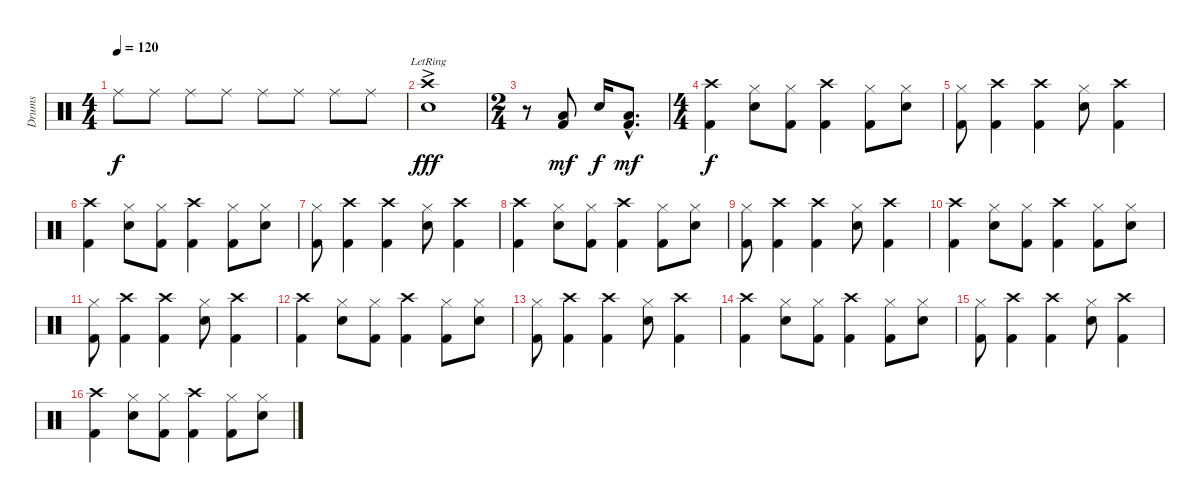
\track ("Drums" "Drums") {instrument percussion}
\staff {score}
\articulation defaults
\ts (4 4)
\tempo 120
\clef neutral
\ks c "Ride (middle)".8{dy f} "Ride (middle)".8 "Ride (middle)".8 "Ride (middle)".8 "Ride (middle)".8 "Ride (middle)".8 "Ride (middle)".8 "Ride (middle)".8
|
("Crash high (hit)"{ac lr} "Electric Snare (hit)"{ac lr}).1{dy fff} |
\ts (2 4)
r.8 ("Low Floor Tom (hit)" "Kick (hit) 2").8{dy mf} "Electric Snare (hit)".16{dy f} ("Low Floor Tom (hit)"{hac} "Kick (hit) 2"{hac}).8{d dy mf} |
\ts (4 4)
("Crash high (hit)" "Kick (hit) 2").4{dy f} ("Hi-Hat (closed)" "Electric Snare (hit)").8 ("Hi-Hat (closed)" "Kick (hit) 2").8 ("Crash high (hit)" "Kick (hit) 2").4 ("Hi-Hat (closed)" "Kick (hit) 2").8 ("Hi-Hat (closed)" "Electric Snare (hit)").8 |
("Hi-Hat (closed)" "Kick (hit) 2").8 ("Crash high (hit)" "Kick (hit) 2").4 ("Crash high (hit)" "Kick (hit) 2").4 ("Hi-Hat (closed)" "Electric Snare (hit)").8 ("Crash high (hit)" "Kick (hit) 2").4 |
("Crash high (hit)" "Kick (hit) 2").4 ("Hi-Hat (closed)" "Electric Snare (hit)").8 ("Hi-Hat (closed)" "Kick (hit) 2").8 ("Crash high (hit)" "Kick (hit) 2").4 ("Hi-Hat (closed)" "Kick (hit) 2").8 ("Hi-Hat (closed)" "Electric Snare (hit)").8 |
("Hi-Hat (closed)" "Kick (hit) 2").8 ("Crash high (hit)" "Kick (hit) 2").4 ("Crash high (hit)" "Kick (hit) 2").4 ("Hi-Hat (closed)" "Electric Snare (hit)").8 ("Crash high (hit)" "Kick (hit) 2").4 |
("Crash high (hit)" "Kick (hit) 2").4 ("Hi-Hat (closed)" "Electric Snare (hit)").8 ("Hi-Hat (closed)" "Kick (hit) 2").8 ("Crash high (hit)" "Kick (hit) 2").4 ("Hi-Hat (closed)" "Kick (hit) 2").8 ("Hi-Hat (closed)" "Electric Snare (hit)").8 |
("Hi-Hat (closed)" "Kick (hit) 2").8 ("Crash high (hit)" "Kick (hit) 2").4 ("Crash high (hit)" "Kick (hit) 2").4 ("Hi-Hat (closed)" "Electric Snare (hit)").8 ("Crash high (hit)" "Kick (hit) 2").4 |
("Crash high (hit)" "Kick (hit) 2").4 ("Hi-Hat (closed)" "Electric Snare (hit)").8 ("Hi-Hat (closed)" "Kick (hit) 2").8 ("Crash high (hit)" "Kick (hit) 2").4 ("Hi-Hat (closed)" "Kick (hit) 2").8 ("Hi-Hat (closed)" "Electric Snare (hit)").8 |
("Hi-Hat (closed)" "Kick (hit) 2").8 ("Crash high (hit)" "Kick (hit) 2").4 ("Crash high (hit)" "Kick (hit) 2").4 ("Hi-Hat (closed)" "Electric Snare (hit)").8 ("Crash high (hit)" "Kick (hit) 2").4 |
("Crash high (hit)" "Kick (hit) 2").4 ("Hi-Hat (closed)" "Electric Snare (hit)").8 ("Hi-Hat (closed)" "Kick (hit) 2").8 ("Crash high (hit)" "Kick (hit) 2").4 ("Hi-Hat (closed)" "Kick (hit) 2").8 ("Hi-Hat (closed)" "Electric Snare (hit)").8 |
("Hi-Hat (closed)" "Kick (hit) 2").8 ("Crash high (hit)" "Kick (hit) 2").4 ("Crash high (hit)" "Kick (hit) 2").4 ("Hi-Hat (closed)" "Electric Snare (hit)").8 ("Crash high (hit)" "Kick (hit) 2").4 |
("Crash high (hit)" "Kick (hit) 2").4 ("Hi-Hat (closed)" "Electric Snare (hit)").8 ("Hi-Hat (closed)" "Kick (hit) 2").8 ("Crash high (hit)" "Kick (hit) 2").4 ("Hi-Hat (closed)" "Kick (hit) 2").8 ("Hi-Hat (closed)" "Electric Snare (hit)").8 |
("Hi-Hat (closed)" "Kick (hit) 2").8 ("Crash high (hit)" "Kick (hit) 2").4 ("Crash high (hit)" "Kick (hit) 2").4 ("Hi-Hat (closed)" "Electric Snare (hit)").8 ("Crash high (hit)" "Kick (hit) 2").4 |
("Crash high (hit)" "Kick (hit) 2").4 ("Hi-Hat (closed)" "Electric Snare (hit)").8 ("Hi-Hat (closed)" "Kick (hit) 2").8 ("Crash high (hit)" "Kick (hit) 2").4 ("Hi-Hat (closed)" "Kick (hit) 2").8 ("Hi-Hat (closed)" "Electric Snare (hit)").8
